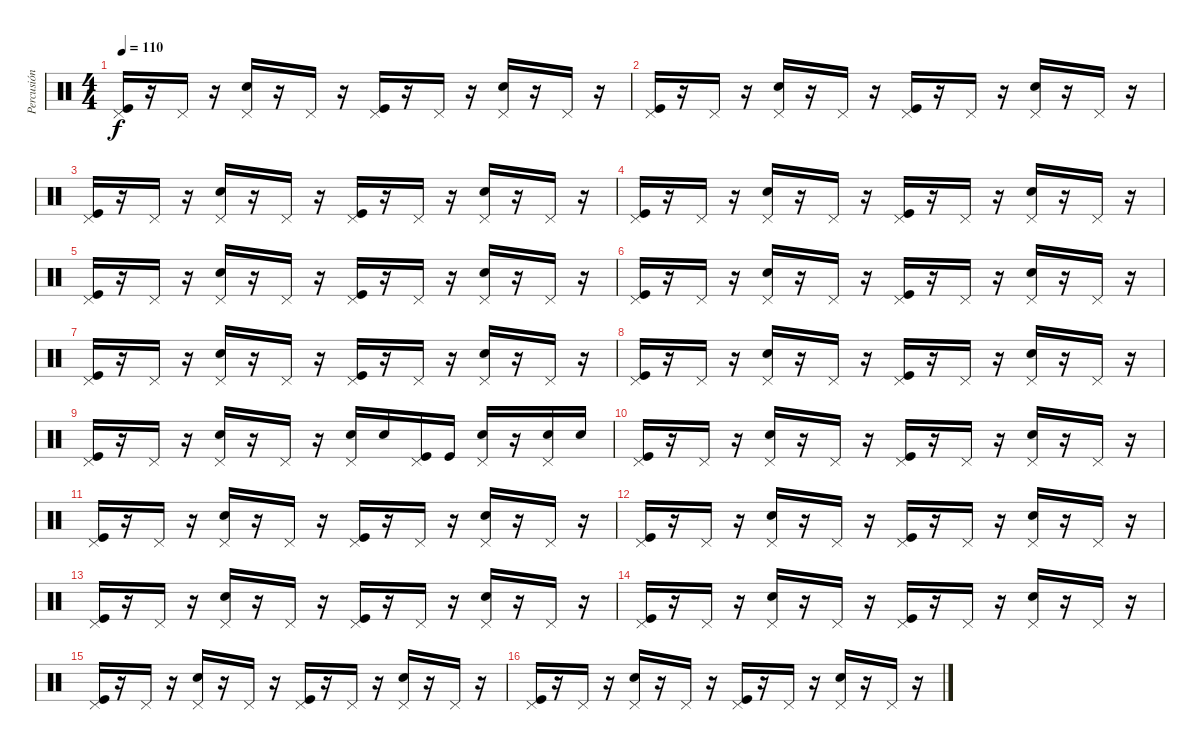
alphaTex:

\track ("Percusión" "Percusión") {instrument percussion}
\staff {score}
\articulation defaults
\ts (4 4)
\tempo 110
\clef neutral
\ks c
("Pedal Hi-Hat (hit)" "Kick (hit)").16{dy f} r.16 "Pedal Hi-Hat (hit)".16 r.16 ("Pedal Hi-Hat (hit)" "Electric Snare (hit)").16 r.16 "Pedal Hi-Hat (hit)".16 r.16 ("Pedal Hi-Hat (hit)" "Kick (hit)").16 r.16 "Pedal Hi-Hat (hit)".16 r.16 ("Pedal Hi-Hat (hit)" "Electric Snare (hit)").16 r.16 "Pedal Hi-Hat (hit)".16 r.16 |
("Pedal Hi-Hat (hit)" "Kick (hit)").16 r.16 "Pedal Hi-Hat (hit)".16 r.16 ("Pedal Hi-Hat (hit)" "Electric Snare (hit)").16 r.16 "Pedal Hi-Hat (hit)".16 r.16 ("Pedal Hi-Hat (hit)" "Kick (hit)").16 r.16 "Pedal Hi-Hat (hit)".16 r.16 ("Pedal Hi-Hat (hit)" "Electric Snare (hit)").16 r.16 "Pedal Hi-Hat (hit)".16 r.16 |
("Pedal Hi-Hat (hit)" "Kick (hit)").16 r.16 "Pedal Hi-Hat (hit)".16 r.16 ("Pedal Hi-Hat (hit)" "Electric Snare (hit)").16 r.16 "Pedal Hi-Hat (hit)".16 r.16 ("Pedal Hi-Hat (hit)" "Kick (hit)").16 r.16 "Pedal Hi-Hat (hit)".16 r.16 ("Pedal Hi-Hat (hit)" "Electric Snare (hit)").16 r.16 "Pedal Hi-Hat (hit)".16 r.16 |
("Pedal Hi-Hat (hit)" "Kick (hit)").16 r.16 "Pedal Hi-Hat (hit)".16 r.16 ("Pedal Hi-Hat (hit)" "Electric Snare (hit)").16 r.16 "Pedal Hi-Hat (hit)".16 r.16 ("Pedal Hi-Hat (hit)" "Kick (hit)").16 r.16 "Pedal Hi-Hat (hit)".16 r.16 ("Pedal Hi-Hat (hit)" "Electric Snare (hit)").16 r.16 "Pedal Hi-Hat (hit)".16 r.16 |
("Pedal Hi-Hat (hit)" "Kick (hit)").16 r.16 "Pedal Hi-Hat (hit)".16 r.16 ("Pedal Hi-Hat (hit)" "Electric Snare (hit)").16 r.16 "Pedal Hi-Hat (hit)".16 r.16 ("Pedal Hi-Hat (hit)" "Kick (hit)").16 r.16 "Pedal Hi-Hat (hit)".16 r.16 ("Pedal Hi-Hat (hit)" "Electric Snare (hit)").16 r.16 "Pedal Hi-Hat (hit)".16 r.16 |
("Pedal Hi-Hat (hit)" "Kick (hit)").16 r.16 "Pedal Hi-Hat (hit)".16 r.16 ("Pedal Hi-Hat (hit)" "Electric Snare (hit)").16 r.16 "Pedal Hi-Hat (hit)".16 r.16 ("Pedal Hi-Hat (hit)" "Kick (hit)").16 r.16 "Pedal Hi-Hat (hit)".16 r.16 ("Pedal Hi-Hat (hit)" "Electric Snare (hit)").16 r.16 "Pedal Hi-Hat (hit)".16 r.16 |
("Pedal Hi-Hat (hit)" "Kick (hit)").16 r.16 "Pedal Hi-Hat (hit)".16 r.16 ("Pedal Hi-Hat (hit)" "Electric Snare (hit)").16 r.16 "Pedal Hi-Hat (hit)".16 r.16 ("Pedal Hi-Hat (hit)" "Kick (hit)").16 r.16 "Pedal Hi-Hat (hit)".16 r.16 ("Pedal Hi-Hat (hit)" "Electric Snare (hit)").16 r.16 "Pedal Hi-Hat (hit)".16 r.16 |
("Pedal Hi-Hat (hit)" "Kick (hit)").16 r.16 "Pedal Hi-Hat (hit)".16 r.16 ("Pedal Hi-Hat (hit)" "Electric Snare (hit)").16 r.16 "Pedal Hi-Hat (hit)".16 r.16 ("Pedal Hi-Hat (hit)" "Kick (hit)").16 r.16 "Pedal Hi-Hat (hit)".16 r.16 ("Pedal Hi-Hat (hit)" "Electric Snare (hit)").16 r.16 "Pedal Hi-Hat (hit)".16 r.16 |
("Pedal Hi-Hat (hit)" "Kick (hit)").16 r.16 "Pedal Hi-Hat (hit)".16 r.16 ("Pedal Hi-Hat (hit)" "Electric Snare (hit)").16 r.16 "Pedal Hi-Hat (hit)".16 r.16 ("Pedal Hi-Hat (hit)" "Electric Snare (hit)").16 "Electric Snare (hit)".16 ("Pedal Hi-Hat (hit)" "Kick (hit)").16 "Kick (hit)".16 ("Pedal Hi-Hat (hit)" "Electric Snare (hit)").16 r.16 ("Pedal Hi-Hat (hit)" "Electric Snare (hit)").16 "Electric Snare (hit)".16 |
("Pedal Hi-Hat (hit)" "Kick (hit)").16 r.16 "Pedal Hi-Hat (hit)".16 r.16 ("Pedal Hi-Hat (hit)" "Electric Snare (hit)").16 r.16 "Pedal Hi-Hat (hit)".16 r.16 ("Pedal Hi-Hat (hit)" "Kick (hit)").16 r.16 "Pedal Hi-Hat (hit)".16 r.16 ("Pedal Hi-Hat (hit)" "Electric Snare (hit)").16 r.16 "Pedal Hi-Hat (hit)".16 r.16 |
("Pedal Hi-Hat (hit)" "Kick (hit)").16 r.16 "Pedal Hi-Hat (hit)".16 r.16 ("Pedal Hi-Hat (hit)" "Electric Snare (hit)").16 r.16 "Pedal Hi-Hat (hit)".16 r.16 ("Pedal Hi-Hat (hit)" "Kick (hit)").16 r.16 "Pedal Hi-Hat (hit)".16 r.16 ("Pedal Hi-Hat (hit)" "Electric Snare (hit)").16 r.16 "Pedal Hi-Hat (hit)".16 r.16 |
("Pedal Hi-Hat (hit)" "Kick (hit)").16 r.16 "Pedal Hi-Hat (hit)".16 r.16 ("Pedal Hi-Hat (hit)" "Electric Snare (hit)").16 r.16 "Pedal Hi-Hat (hit)".16 r.16 ("Pedal Hi-Hat (hit)" "Kick (hit)").16 r.16 "Pedal Hi-Hat (hit)".16 r.16 ("Pedal Hi-Hat (hit)" "Electric Snare (hit)").16 r.16 "Pedal Hi-Hat (hit)".16 r.16 |
("Pedal Hi-Hat (hit)" "Kick (hit)").16 r.16 "Pedal Hi-Hat (hit)".16 r.16 ("Pedal Hi-Hat (hit)" "Electric Snare (hit)").16 r.16 "Pedal Hi-Hat (hit)".16 r.16 ("Pedal Hi-Hat (hit)" "Kick (hit)").16 r.16 "Pedal Hi-Hat (hit)".16 r.16 ("Pedal Hi-Hat (hit)" "Electric Snare (hit)").16 r.16 "Pedal Hi-Hat (hit)".16 r.16 |
("Pedal Hi-Hat (hit)" "Kick (hit)").16 r.16 "Pedal Hi-Hat (hit)".16 r.16 ("Pedal Hi-Hat (hit)" "Electric Snare (hit)").16 r.16 "Pedal Hi-Hat (hit)".16 r.16 ("Pedal Hi-Hat (hit)" "Kick (hit)").16 r.16 "Pedal Hi-Hat (hit)".16 r.16 ("Pedal Hi-Hat (hit)" "Electric Snare (hit)").16 r.16 "Pedal Hi-Hat (hit)".16 r.16 |
("Pedal Hi-Hat (hit)" "Kick (hit)").16 r.16 "Pedal Hi-Hat (hit)".16 r.16 ("Pedal Hi-Hat (hit)" "Electric Snare (hit)").16 r.16 "Pedal Hi-Hat (hit)".16 r.16 ("Pedal Hi-Hat (hit)" "Kick (hit)").16 r.16 "Pedal Hi-Hat (hit)".16 r.16 ("Pedal Hi-Hat (hit)" "Electric Snare (hit)").16 r.16 "Pedal Hi-Hat (hit)".16 r.16 |
("Pedal Hi-Hat (hit)" "Kick (hit)").16 r.16 "Pedal Hi-Hat (hit)".16 r.16 ("Pedal Hi-Hat (hit)" "Electric Snare (hit)").16 r.16 "Pedal Hi-Hat (hit)".16 r.16 ("Pedal Hi-Hat (hit)" "Kick (hit)").16 r.16 "Pedal Hi-Hat (hit)".16 r.16 ("Pedal Hi-Hat (hit)" "Electric Snare (hit)").16 r.16 "Pedal Hi-Hat (hit)".16 r.16
